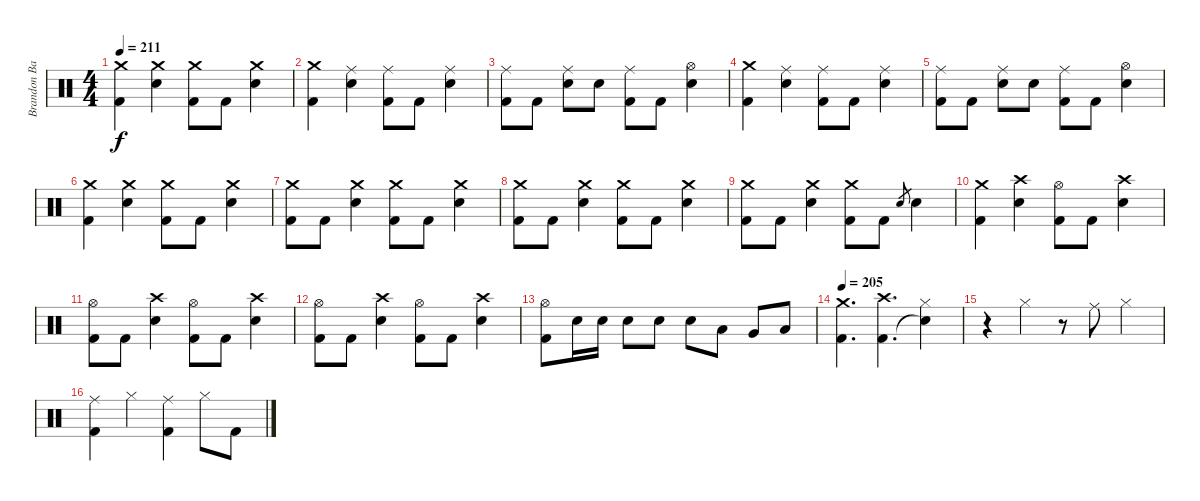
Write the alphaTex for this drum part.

\track ("Brandon Barnes - Drums" "Brandon Ba") {instrument percussion}
\staff {score}
\articulation defaults
\ts (4 4)
\tempo 211
\clef neutral
\ks c
("Crash medium (hit)" "Kick (hit) 2").4{dy f} ("Crash medium (hit)" "Electric Snare (hit)").4 ("Crash medium (hit)" "Kick (hit) 2").8 "Kick (hit) 2".8 ("Crash medium (hit)" "Electric Snare (hit)").4 |
("Crash medium (hit)" "Kick (hit) 2").4 ("Ride (middle)" "Electric Snare (hit)").4 ("Ride (middle)" "Kick (hit) 2").8 "Kick (hit) 2".8 ("Ride (middle)" "Electric Snare (hit)").4 |
("Ride (middle)" "Kick (hit) 2").8 "Kick (hit) 2".8 ("Ride (middle)" "Electric Snare (hit)").8 "Electric Snare (hit)".8 ("Ride (middle)" "Kick (hit) 2").8 "Kick (hit) 2".8 ("Hi-Hat (open)" "Electric Snare (hit)").4 |
("Crash medium (hit)" "Kick (hit) 2").4 ("Ride (middle)" "Electric Snare (hit)").4 ("Ride (middle)" "Kick (hit) 2").8 "Kick (hit) 2".8 ("Ride (middle)" "Electric Snare (hit)").4 |
("Ride (middle)" "Kick (hit) 2").8 "Kick (hit) 2".8 ("Ride (middle)" "Electric Snare (hit)").8 "Electric Snare (hit)".8 ("Ride (middle)" "Kick (hit) 2").8 "Kick (hit) 2".8 ("Hi-Hat (open)" "Electric Snare (hit)").4 |
("Crash medium (hit)" "Kick (hit) 2").4 ("Crash medium (hit)" "Electric Snare (hit)").4 ("Crash medium (hit)" "Kick (hit) 2").8 "Kick (hit) 2".8 ("Crash medium (hit)" "Electric Snare (hit)").4 |
("Crash medium (hit)" "Kick (hit) 2").8 "Kick (hit) 2".8 ("Crash medium (hit)" "Electric Snare (hit)").4 ("Crash medium (hit)" "Kick (hit) 2").8 "Kick (hit) 2".8 ("Crash medium (hit)" "Electric Snare (hit)").4 |
("Crash medium (hit)" "Kick (hit) 2").8 "Kick (hit) 2".8 ("Crash medium (hit)" "Electric Snare (hit)").4 ("Crash medium (hit)" "Kick (hit) 2").8 "Kick (hit) 2".8 ("Crash medium (hit)" "Electric Snare (hit)").4 |
("Crash medium (hit)" "Kick (hit) 2").8 "Kick (hit) 2".8 ("Crash medium (hit)" "Electric Snare (hit)").4 ("Crash medium (hit)" "Kick (hit) 2").8 "Kick (hit) 2".8 "Electric Snare (hit)".8{gr} "Electric Snare (hit)".4 |
("Crash medium (hit)" "Kick (hit) 2").4 ("Crash high (hit)" "Electric Snare (hit)").4 ("Hi-Hat (open)" "Kick (hit) 2").8 "Kick (hit) 2".8 ("Crash high (hit)" "Electric Snare (hit)").4 |
("Hi-Hat (open)" "Kick (hit) 2").8 "Kick (hit) 2".8 ("Crash high (hit)" "Electric Snare (hit)").4 ("Hi-Hat (open)" "Kick (hit) 2").8 "Kick (hit) 2".8 ("Crash high (hit)" "Electric Snare (hit)").4 |
("Hi-Hat (open)" "Kick (hit) 2").8 "Kick (hit) 2".8 ("Crash high (hit)" "Electric Snare (hit)").4 ("Hi-Hat (open)" "Kick (hit) 2").8 "Kick (hit) 2".8 ("Crash high (hit)" "Electric Snare (hit)").4 |
("Hi-Hat (open)" "Kick (hit) 2").8 "Electric Snare (hit)".16 "Electric Snare (hit)".16 "Electric Snare (hit)".8 "Electric Snare (hit)".8 "Electric Snare (hit)".8 "Low Tom (hit)".8 "Very Low Tom (hit)".8 "Low Floor Tom (hit)".8 |
\tempo 205
("Crash medium (hit)" "Kick (hit) 2").4{d} ("Crash high (hit)" "Kick (hit) 2").4{d} ("Hi-Hat (closed)" "Snare (hit)"{t}).4 |
r.4 "Hi-Hat (closed)".4 r.8 "Ride (middle)".8 "Hi-Hat (closed)".4 |
("Ride (middle)" "Kick (hit) 2").4 "Hi-Hat (closed)".4 ("Ride (middle)" "Kick (hit) 2").4 "Hi-Hat (closed)".8 "Kick (hit) 2".8
